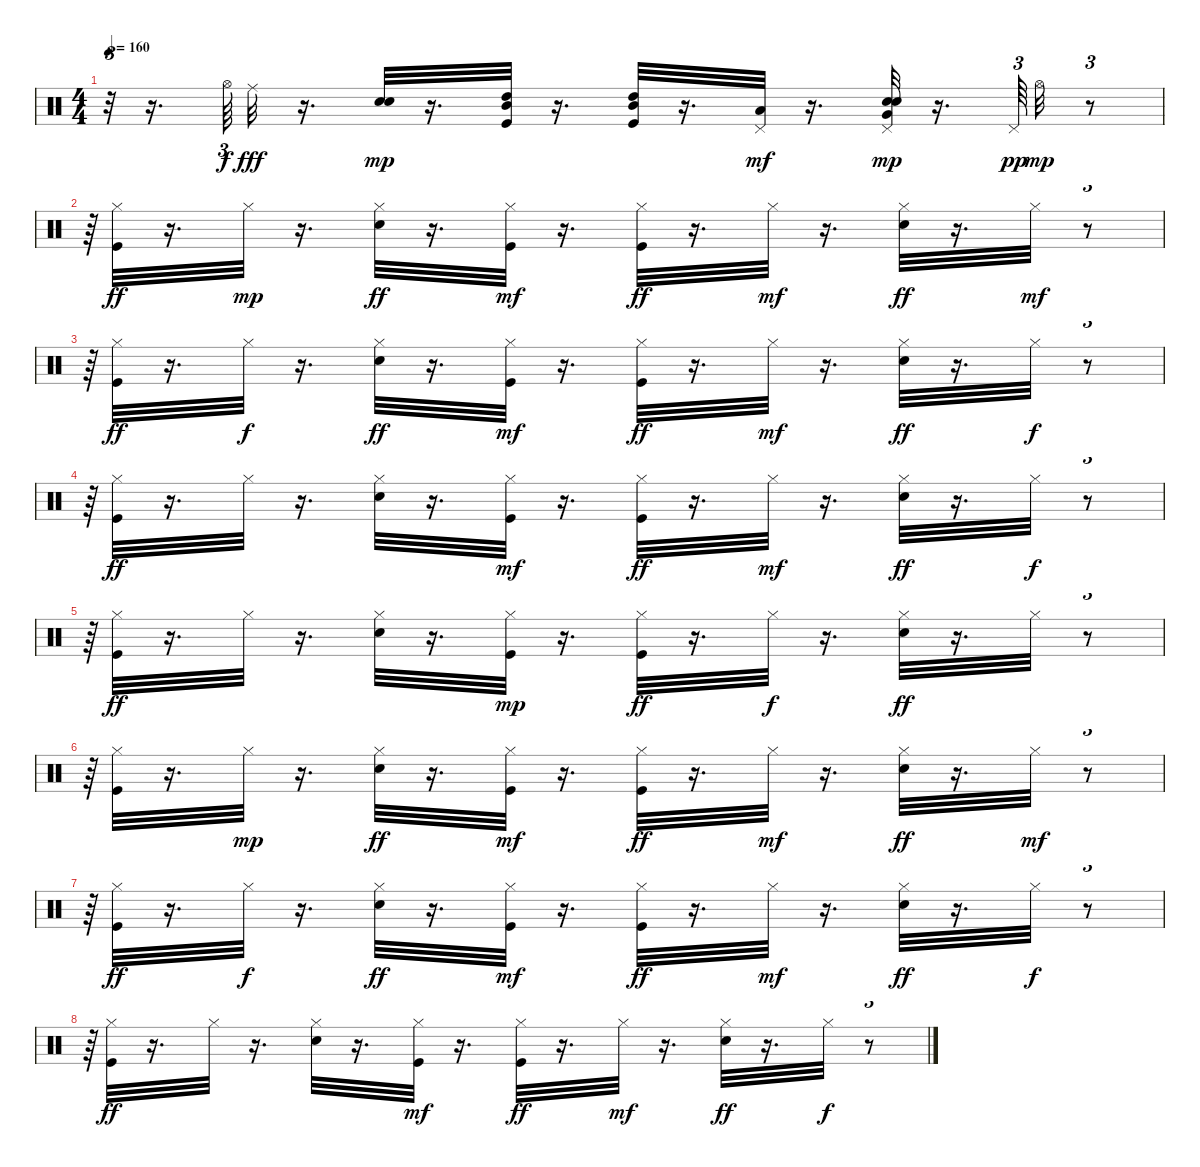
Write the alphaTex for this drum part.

\track "" {instrument percussion}
\staff {score}
\articulation defaults
\ts (4 4)
\tempo 160
\clef neutral
\ks c
r.32{tu (3 2) dy fff} r.16{d} "Hi-Hat (open)".64{tu (3 2) dy f} "Ride (middle)".32{dy fff} r.16{d} ("Electric Snare (hit)" "Snare (hit) 2").32{dy mp} r.16{d} ("Kick (hit)" "High Tom (hit)" "Mid Tom (hit)").32 r.16{d} ("Kick (hit)" "High Tom (hit)" "Mid Tom (hit)").32 r.16{d} ("Pedal Hi-Hat (hit)" "Low Tom (hit)").32{dy mf} r.16{d} ("Pedal Hi-Hat (hit)" "Electric Snare (hit)" "Very Low Tom (hit)" "Snare (hit) 2").32{dy mp} r.16{d} "Pedal Hi-Hat (hit)".64{tu (3 2) dy pp} "Hi-Hat (open)".32{dy mp} r.8{tu (3 2)} |
r.64{tu (3 2)} ("Kick (hit)" "Hi-Hat (closed)").32{dy ff} r.16{d} "Hi-Hat (closed)".32{dy mp} r.16{d} ("Hi-Hat (closed)" "Electric Snare (hit)").32{dy ff} r.16{d} ("Kick (hit)" "Hi-Hat (closed)").32{dy mf} r.16{d} ("Kick (hit)" "Hi-Hat (closed)").32{dy ff} r.16{d} "Hi-Hat (closed)".32{dy mf} r.16{d} ("Hi-Hat (closed)" "Electric Snare (hit)").32{dy ff} r.16{d} "Hi-Hat (closed)".32{dy mf} r.8{tu (3 2)} |
r.64{tu (3 2)} ("Kick (hit)" "Hi-Hat (closed)").32{dy ff} r.16{d} "Hi-Hat (closed)".32{dy f} r.16{d} ("Hi-Hat (closed)" "Electric Snare (hit)").32{dy ff} r.16{d} ("Kick (hit)" "Hi-Hat (closed)").32{dy mf} r.16{d} ("Kick (hit)" "Hi-Hat (closed)").32{dy ff} r.16{d} "Hi-Hat (closed)".32{dy mf} r.16{d} ("Hi-Hat (closed)" "Electric Snare (hit)").32{dy ff} r.16{d} "Hi-Hat (closed)".32{dy f} r.8{tu (3 2)} |
r.64{tu (3 2)} ("Kick (hit)" "Hi-Hat (closed)").32{dy ff} r.16{d} "Hi-Hat (closed)".32 r.16{d} ("Hi-Hat (closed)" "Electric Snare (hit)").32 r.16{d} ("Kick (hit)" "Hi-Hat (closed)").32{dy mf} r.16{d} ("Kick (hit)" "Hi-Hat (closed)").32{dy ff} r.16{d} "Hi-Hat (closed)".32{dy mf} r.16{d} ("Hi-Hat (closed)" "Electric Snare (hit)").32{dy ff} r.16{d} "Hi-Hat (closed)".32{dy f} r.8{tu (3 2)} |
r.64{tu (3 2)} ("Kick (hit)" "Hi-Hat (closed)").32{dy ff} r.16{d} "Hi-Hat (closed)".32 r.16{d} ("Hi-Hat (closed)" "Electric Snare (hit)").32 r.16{d} ("Kick (hit)" "Hi-Hat (closed)").32{dy mp} r.16{d} ("Kick (hit)" "Hi-Hat (closed)").32{dy ff} r.16{d} "Hi-Hat (closed)".32{dy f} r.16{d} ("Hi-Hat (closed)" "Electric Snare (hit)").32{dy ff} r.16{d} "Hi-Hat (closed)".32 r.8{tu (3 2)} |
r.64{tu (3 2)} ("Kick (hit)" "Hi-Hat (closed)").32 r.16{d} "Hi-Hat (closed)".32{dy mp} r.16{d} ("Hi-Hat (closed)" "Electric Snare (hit)").32{dy ff} r.16{d} ("Kick (hit)" "Hi-Hat (closed)").32{dy mf} r.16{d} ("Kick (hit)" "Hi-Hat (closed)").32{dy ff} r.16{d} "Hi-Hat (closed)".32{dy mf} r.16{d} ("Hi-Hat (closed)" "Electric Snare (hit)").32{dy ff} r.16{d} "Hi-Hat (closed)".32{dy mf} r.8{tu (3 2)} |
r.64{tu (3 2)} ("Kick (hit)" "Hi-Hat (closed)").32{dy ff} r.16{d} "Hi-Hat (closed)".32{dy f} r.16{d} ("Hi-Hat (closed)" "Electric Snare (hit)").32{dy ff} r.16{d} ("Kick (hit)" "Hi-Hat (closed)").32{dy mf} r.16{d} ("Kick (hit)" "Hi-Hat (closed)").32{dy ff} r.16{d} "Hi-Hat (closed)".32{dy mf} r.16{d} ("Hi-Hat (closed)" "Electric Snare (hit)").32{dy ff} r.16{d} "Hi-Hat (closed)".32{dy f} r.8{tu (3 2)} |
r.64{tu (3 2)} ("Kick (hit)" "Hi-Hat (closed)").32{dy ff} r.16{d} "Hi-Hat (closed)".32 r.16{d} ("Hi-Hat (closed)" "Electric Snare (hit)").32 r.16{d} ("Kick (hit)" "Hi-Hat (closed)").32{dy mf} r.16{d} ("Kick (hit)" "Hi-Hat (closed)").32{dy ff} r.16{d} "Hi-Hat (closed)".32{dy mf} r.16{d} ("Hi-Hat (closed)" "Electric Snare (hit)").32{dy ff} r.16{d} "Hi-Hat (closed)".32{dy f} r.8{tu (3 2)}
